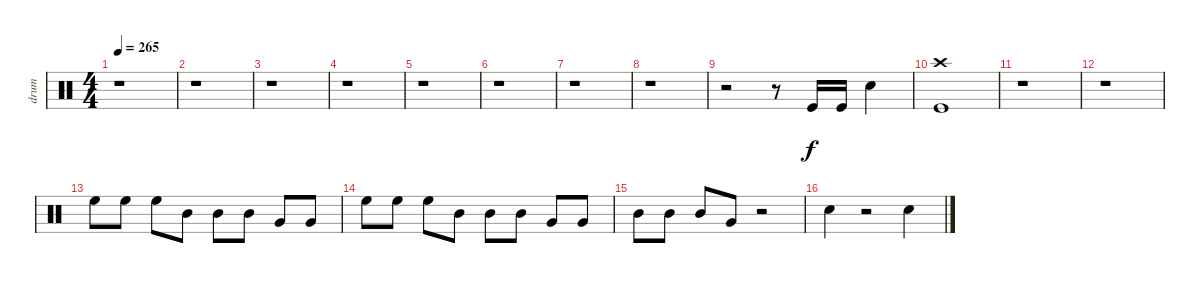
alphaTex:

\track ("drum" "drum") {instrument percussion}
\staff {score}
\articulation defaults
\ts (4 4)
\tempo 265
\clef neutral
\ks c
r.1{dy f} |
r.1 |
r.1 |
r.1 |
r.1 |
r.1 |
r.1 |
r.1 |
r.2 r.8 "Kick (hit)".16 "Kick (hit)".16 "Electric Snare (hit)".4 |
("Kick (hit)" "Crash high (hit)").1 |
r.1 |
r.1 |
"High Floor Tom (hit)".8 "High Floor Tom (hit)".8 "High Floor Tom (hit)".8 "Mid Tom (hit)".8 "Mid Tom (hit)".8 "Mid Tom (hit)".8 "Very Low Tom (hit)".8 "Very Low Tom (hit)".8 |
"High Floor Tom (hit)".8 "High Floor Tom (hit)".8 "High Floor Tom (hit)".8 "Mid Tom (hit)".8 "Mid Tom (hit)".8 "Mid Tom (hit)".8 "Very Low Tom (hit)".8 "Very Low Tom (hit)".8 |
"Mid Tom (hit)".8 "Mid Tom (hit)".8 "Mid Tom (hit)".8 "Very Low Tom (hit)".8 r.2 |
"Electric Snare (hit)".4 r.2 "Electric Snare (hit)".4
